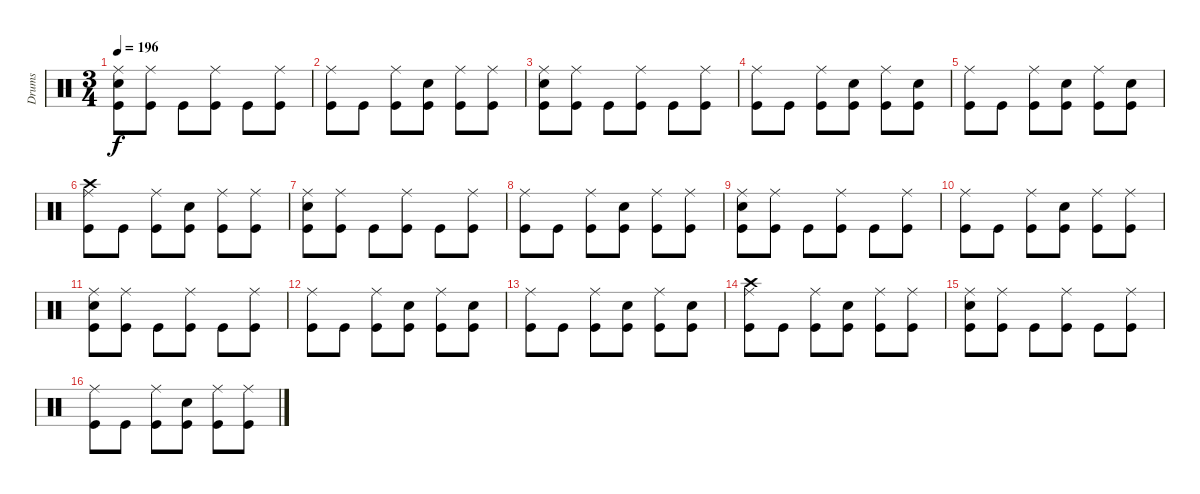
\track ("Drums" "Drums") {instrument percussion}
\staff {score}
\articulation defaults
\ts (3 4)
\tempo 196
\clef neutral
\ks c
("Ride (middle)" "Electric Snare (hit)" "Kick (hit)").8{dy f} ("Ride (middle)" "Kick (hit)").8 "Kick (hit)".8 ("Ride (middle)" "Kick (hit)").8 "Kick (hit)".8 ("Ride (middle)" "Kick (hit)").8 |
("Ride (middle)" "Kick (hit)").8 "Kick (hit)".8 ("Ride (middle)" "Kick (hit)").8 ("Electric Snare (hit)" "Kick (hit)").8 ("Ride (middle)" "Kick (hit)").8 ("Ride (middle)" "Kick (hit)").8 |
("Ride (middle)" "Electric Snare (hit)" "Kick (hit)").8 ("Ride (middle)" "Kick (hit)").8 "Kick (hit)".8 ("Ride (middle)" "Kick (hit)").8 "Kick (hit)".8 ("Ride (middle)" "Kick (hit)").8 |
("Ride (middle)" "Kick (hit)").8 "Kick (hit)".8 ("Ride (middle)" "Kick (hit)").8 ("Electric Snare (hit)" "Kick (hit)").8 ("Ride (middle)" "Kick (hit)").8 ("Electric Snare (hit)" "Kick (hit)").8 |
("Ride (middle)" "Kick (hit)").8 "Kick (hit)".8 ("Ride (middle)" "Kick (hit)").8 ("Electric Snare (hit)" "Kick (hit)").8 ("Ride (middle)" "Kick (hit)").8 ("Electric Snare (hit)" "Kick (hit)").8 |
("Crash high (hit)" "Ride (middle)" "Kick (hit)").8{volume 7} "Kick (hit)".8 ("Ride (middle)" "Kick (hit)").8 ("Electric Snare (hit)" "Kick (hit)").8 ("Ride (middle)" "Kick (hit)").8 ("Ride (middle)" "Kick (hit)").8 |
("Ride (middle)" "Electric Snare (hit)" "Kick (hit)").8 ("Ride (middle)" "Kick (hit)").8 "Kick (hit)".8 ("Ride (middle)" "Kick (hit)").8 "Kick (hit)".8 ("Ride (middle)" "Kick (hit)").8 |
("Ride (middle)" "Kick (hit)").8 "Kick (hit)".8 ("Ride (middle)" "Kick (hit)").8 ("Electric Snare (hit)" "Kick (hit)").8 ("Ride (middle)" "Kick (hit)").8 ("Ride (middle)" "Kick (hit)").8 |
("Ride (middle)" "Electric Snare (hit)" "Kick (hit)").8 ("Ride (middle)" "Kick (hit)").8 "Kick (hit)".8 ("Ride (middle)" "Kick (hit)").8 "Kick (hit)".8 ("Ride (middle)" "Kick (hit)").8 |
("Ride (middle)" "Kick (hit)").8 "Kick (hit)".8 ("Ride (middle)" "Kick (hit)").8 ("Electric Snare (hit)" "Kick (hit)").8 ("Ride (middle)" "Kick (hit)").8 ("Ride (middle)" "Kick (hit)").8 |
("Ride (middle)" "Electric Snare (hit)" "Kick (hit)").8 ("Ride (middle)" "Kick (hit)").8 "Kick (hit)".8 ("Ride (middle)" "Kick (hit)").8 "Kick (hit)".8 ("Ride (middle)" "Kick (hit)").8 |
("Ride (middle)" "Kick (hit)").8 "Kick (hit)".8 ("Ride (middle)" "Kick (hit)").8 ("Electric Snare (hit)" "Kick (hit)").8 ("Ride (middle)" "Kick (hit)").8 ("Electric Snare (hit)" "Kick (hit)").8 |
("Ride (middle)" "Kick (hit)").8 "Kick (hit)".8 ("Ride (middle)" "Kick (hit)").8 ("Electric Snare (hit)" "Kick (hit)").8 ("Ride (middle)" "Kick (hit)").8 ("Electric Snare (hit)" "Kick (hit)").8 |
("Crash high (hit)" "Ride (middle)" "Kick (hit)").8{volume 0} "Kick (hit)".8 ("Ride (middle)" "Kick (hit)").8 ("Electric Snare (hit)" "Kick (hit)").8 ("Ride (middle)" "Kick (hit)").8 ("Ride (middle)" "Kick (hit)").8 |
("Ride (middle)" "Electric Snare (hit)" "Kick (hit)").8 ("Ride (middle)" "Kick (hit)").8 "Kick (hit)".8 ("Ride (middle)" "Kick (hit)").8 "Kick (hit)".8 ("Ride (middle)" "Kick (hit)").8 |
("Ride (middle)" "Kick (hit)").8 "Kick (hit)".8 ("Ride (middle)" "Kick (hit)").8 ("Electric Snare (hit)" "Kick (hit)").8 ("Ride (middle)" "Kick (hit)").8 ("Ride (middle)" "Kick (hit)").8
